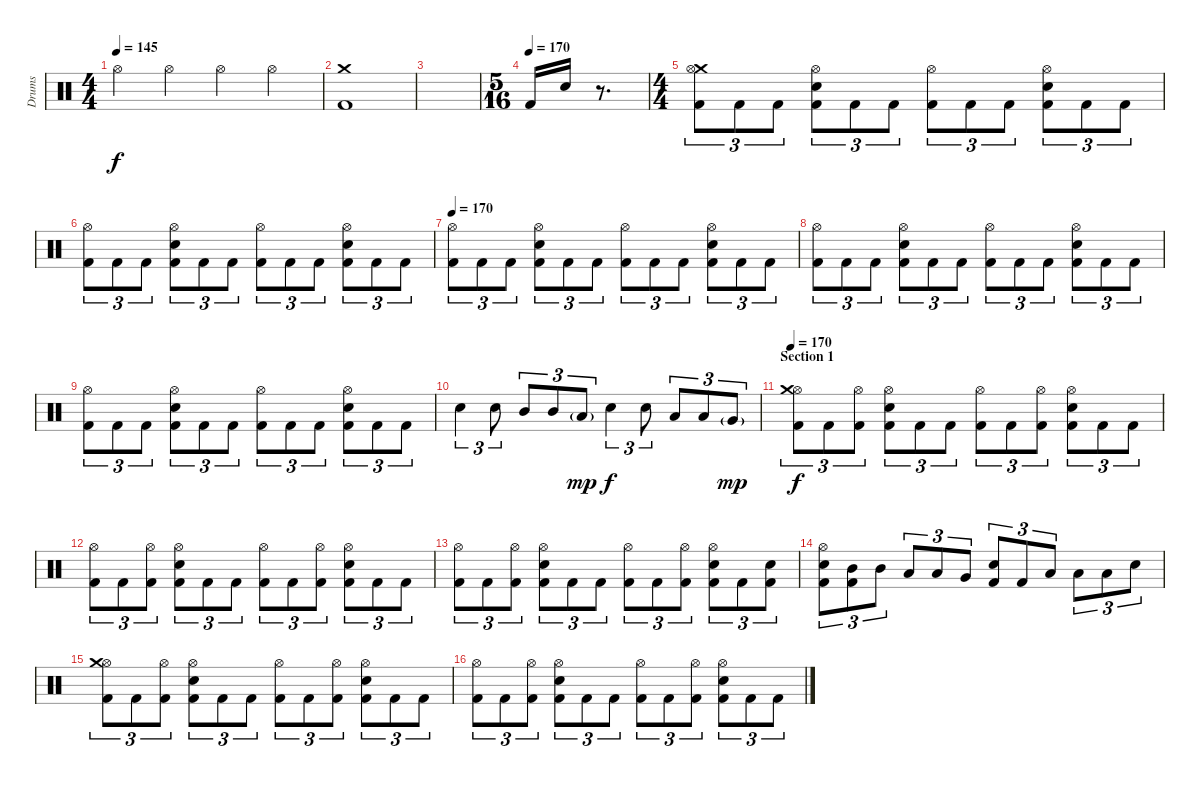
\track ("Drums" "Drums") {instrument percussion}
\staff {score}
\articulation defaults
\ts (4 4)
\tempo 145
\clef neutral
\ks c "Hi-Hat (open)".4{dy f} "Hi-Hat (open)".4 "Hi-Hat (open)".4 "Hi-Hat (open)".4
|
("Crash medium (hit)" "Kick (hit) 2").1 |
|
\ts (5 16)
\tempo (170)
"Kick (hit) 2".16 "Snare (hit) 2".16 r.8{d} |
\ts (4 4)
("Kick (hit) 2" "Crash medium (hit)" "Hi-Hat (open)").8{tu (3 2)} "Kick (hit) 2".8{tu (3 2)} "Kick (hit) 2".8{tu (3 2)} ("Kick (hit) 2" "Electric Snare (hit)" "Hi-Hat (open)").8{tu (3 2)} "Kick (hit) 2".8{tu (3 2)} "Kick (hit) 2".8{tu (3 2)} ("Kick (hit) 2" "Hi-Hat (open)").8{tu (3 2)} "Kick (hit) 2".8{tu (3 2)} "Kick (hit) 2".8{tu (3 2)} ("Kick (hit) 2" "Electric Snare (hit)" "Hi-Hat (open)").8{tu (3 2)} "Kick (hit) 2".8{tu (3 2)} "Kick (hit) 2".8{tu (3 2)} |
("Kick (hit) 2" "Hi-Hat (open)").8{tu (3 2)} "Kick (hit) 2".8{tu (3 2)} "Kick (hit) 2".8{tu (3 2)} ("Kick (hit) 2" "Electric Snare (hit)" "Hi-Hat (open)").8{tu (3 2)} "Kick (hit) 2".8{tu (3 2)} "Kick (hit) 2".8{tu (3 2)} ("Kick (hit) 2" "Hi-Hat (open)").8{tu (3 2)} "Kick (hit) 2".8{tu (3 2)} "Kick (hit) 2".8{tu (3 2)} ("Kick (hit) 2" "Electric Snare (hit)" "Hi-Hat (open)").8{tu (3 2)} "Kick (hit) 2".8{tu (3 2)} "Kick (hit) 2".8{tu (3 2)} |
\tempo 170
("Kick (hit) 2" "Hi-Hat (open)").8{tu (3 2)} "Kick (hit) 2".8{tu (3 2)} "Kick (hit) 2".8{tu (3 2)} ("Kick (hit) 2" "Electric Snare (hit)" "Hi-Hat (open)").8{tu (3 2)} "Kick (hit) 2".8{tu (3 2)} "Kick (hit) 2".8{tu (3 2)} ("Kick (hit) 2" "Hi-Hat (open)").8{tu (3 2)} "Kick (hit) 2".8{tu (3 2)} "Kick (hit) 2".8{tu (3 2)} ("Kick (hit) 2" "Electric Snare (hit)" "Hi-Hat (open)").8{tu (3 2)} "Kick (hit) 2".8{tu (3 2)} "Kick (hit) 2".8{tu (3 2)} |
("Kick (hit) 2" "Hi-Hat (open)").8{tu (3 2)} "Kick (hit) 2".8{tu (3 2)} "Kick (hit) 2".8{tu (3 2)} ("Kick (hit) 2" "Electric Snare (hit)" "Hi-Hat (open)").8{tu (3 2)} "Kick (hit) 2".8{tu (3 2)} "Kick (hit) 2".8{tu (3 2)} ("Kick (hit) 2" "Hi-Hat (open)").8{tu (3 2)} "Kick (hit) 2".8{tu (3 2)} "Kick (hit) 2".8{tu (3 2)} ("Kick (hit) 2" "Electric Snare (hit)" "Hi-Hat (open)").8{tu (3 2)} "Kick (hit) 2".8{tu (3 2)} "Kick (hit) 2".8{tu (3 2)} |
("Kick (hit) 2" "Hi-Hat (open)").8{tu (3 2)} "Kick (hit) 2".8{tu (3 2)} "Kick (hit) 2".8{tu (3 2)} ("Kick (hit) 2" "Electric Snare (hit)" "Hi-Hat (open)").8{tu (3 2)} "Kick (hit) 2".8{tu (3 2)} "Kick (hit) 2".8{tu (3 2)} ("Kick (hit) 2" "Hi-Hat (open)").8{tu (3 2)} "Kick (hit) 2".8{tu (3 2)} "Kick (hit) 2".8{tu (3 2)} ("Kick (hit) 2" "Electric Snare (hit)" "Hi-Hat (open)").8{tu (3 2)} "Kick (hit) 2".8{tu (3 2)} "Kick (hit) 2".8{tu (3 2)} |
"Electric Snare (hit)".4{tu (3 2)} "Electric Snare (hit)".8{tu (3 2)} "Mid Tom (hit)".8{tu (3 2)} "Mid Tom (hit)".8{tu (3 2)} "Low Tom (hit)"{g}.8{tu (3 2) dy mp} "Electric Snare (hit)".4{tu (3 2) dy f} "Electric Snare (hit)".8{tu (3 2)} "Low Tom (hit)".8{tu (3 2)} "Low Tom (hit)".8{tu (3 2)} "Very Low Tom (hit)"{g}.8{tu (3 2) dy mp} |
\section ("" "Section 1")
\tempo 170
("Kick (hit) 2" "Hi-Hat (open)" "Crash medium (hit)").8{tu (3 2) dy f} "Kick (hit) 2".8{tu (3 2)} ("Kick (hit) 2" "Hi-Hat (open)").8{tu (3 2)} ("Kick (hit) 2" "Electric Snare (hit)" "Hi-Hat (open)").8{tu (3 2)} "Kick (hit) 2".8{tu (3 2)} "Kick (hit) 2".8{tu (3 2)} ("Kick (hit) 2" "Hi-Hat (open)").8{tu (3 2)} "Kick (hit) 2".8{tu (3 2)} ("Kick (hit) 2" "Hi-Hat (open)").8{tu (3 2)} ("Kick (hit) 2" "Electric Snare (hit)" "Hi-Hat (open)").8{tu (3 2)} "Kick (hit) 2".8{tu (3 2)} "Kick (hit) 2".8{tu (3 2)} |
("Kick (hit) 2" "Hi-Hat (open)").8{tu (3 2)} "Kick (hit) 2".8{tu (3 2)} ("Kick (hit) 2" "Hi-Hat (open)").8{tu (3 2)} ("Kick (hit) 2" "Electric Snare (hit)" "Hi-Hat (open)").8{tu (3 2)} "Kick (hit) 2".8{tu (3 2)} "Kick (hit) 2".8{tu (3 2)} ("Kick (hit) 2" "Hi-Hat (open)").8{tu (3 2)} "Kick (hit) 2".8{tu (3 2)} ("Kick (hit) 2" "Hi-Hat (open)").8{tu (3 2)} ("Kick (hit) 2" "Electric Snare (hit)" "Hi-Hat (open)").8{tu (3 2)} "Kick (hit) 2".8{tu (3 2)} "Kick (hit) 2".8{tu (3 2)} |
("Kick (hit) 2" "Hi-Hat (open)").8{tu (3 2)} "Kick (hit) 2".8{tu (3 2)} ("Kick (hit) 2" "Hi-Hat (open)").8{tu (3 2)} ("Kick (hit) 2" "Electric Snare (hit)" "Hi-Hat (open)").8{tu (3 2)} "Kick (hit) 2".8{tu (3 2)} "Kick (hit) 2".8{tu (3 2)} ("Kick (hit) 2" "Hi-Hat (open)").8{tu (3 2)} "Kick (hit) 2".8{tu (3 2)} ("Kick (hit) 2" "Hi-Hat (open)").8{tu (3 2)} ("Kick (hit) 2" "Electric Snare (hit)" "Hi-Hat (open)").8{tu (3 2)} "Kick (hit) 2".8{tu (3 2)} ("Kick (hit) 2" "Electric Snare (hit)").8{tu (3 2)} |
("Kick (hit) 2" "Electric Snare (hit)" "Hi-Hat (open)").8{tu (3 2)} ("Kick (hit) 2" "Mid Tom (hit)").8{tu (3 2)} "Mid Tom (hit)".8{tu (3 2)} "Low Tom (hit)".8{tu (3 2)} "Low Tom (hit)".8{tu (3 2)} "Very Low Tom (hit)".8{tu (3 2)} ("Kick (hit) 2" "Electric Snare (hit)").8{tu (3 2)} "Kick (hit) 2".8{tu (3 2)} "Low Tom (hit)".8{tu (3 2)} "Low Tom (hit)".8{tu (3 2)} "Low Tom (hit)".8{tu (3 2)} "Electric Snare (hit)".8{tu (3 2)} |
("Kick (hit) 2" "Hi-Hat (open)" "Crash medium (hit)").8{tu (3 2)} "Kick (hit) 2".8{tu (3 2)} ("Kick (hit) 2" "Hi-Hat (open)").8{tu (3 2)} ("Kick (hit) 2" "Electric Snare (hit)" "Hi-Hat (open)").8{tu (3 2)} "Kick (hit) 2".8{tu (3 2)} "Kick (hit) 2".8{tu (3 2)} ("Kick (hit) 2" "Hi-Hat (open)").8{tu (3 2)} "Kick (hit) 2".8{tu (3 2)} ("Kick (hit) 2" "Hi-Hat (open)").8{tu (3 2)} ("Kick (hit) 2" "Electric Snare (hit)" "Hi-Hat (open)").8{tu (3 2)} "Kick (hit) 2".8{tu (3 2)} "Kick (hit) 2".8{tu (3 2)} |
("Kick (hit) 2" "Hi-Hat (open)").8{tu (3 2)} "Kick (hit) 2".8{tu (3 2)} ("Kick (hit) 2" "Hi-Hat (open)").8{tu (3 2)} ("Kick (hit) 2" "Electric Snare (hit)" "Hi-Hat (open)").8{tu (3 2)} "Kick (hit) 2".8{tu (3 2)} "Kick (hit) 2".8{tu (3 2)} ("Kick (hit) 2" "Hi-Hat (open)").8{tu (3 2)} "Kick (hit) 2".8{tu (3 2)} ("Kick (hit) 2" "Hi-Hat (open)").8{tu (3 2)} ("Kick (hit) 2" "Electric Snare (hit)" "Hi-Hat (open)").8{tu (3 2)} "Kick (hit) 2".8{tu (3 2)} "Kick (hit) 2".8{tu (3 2)}
